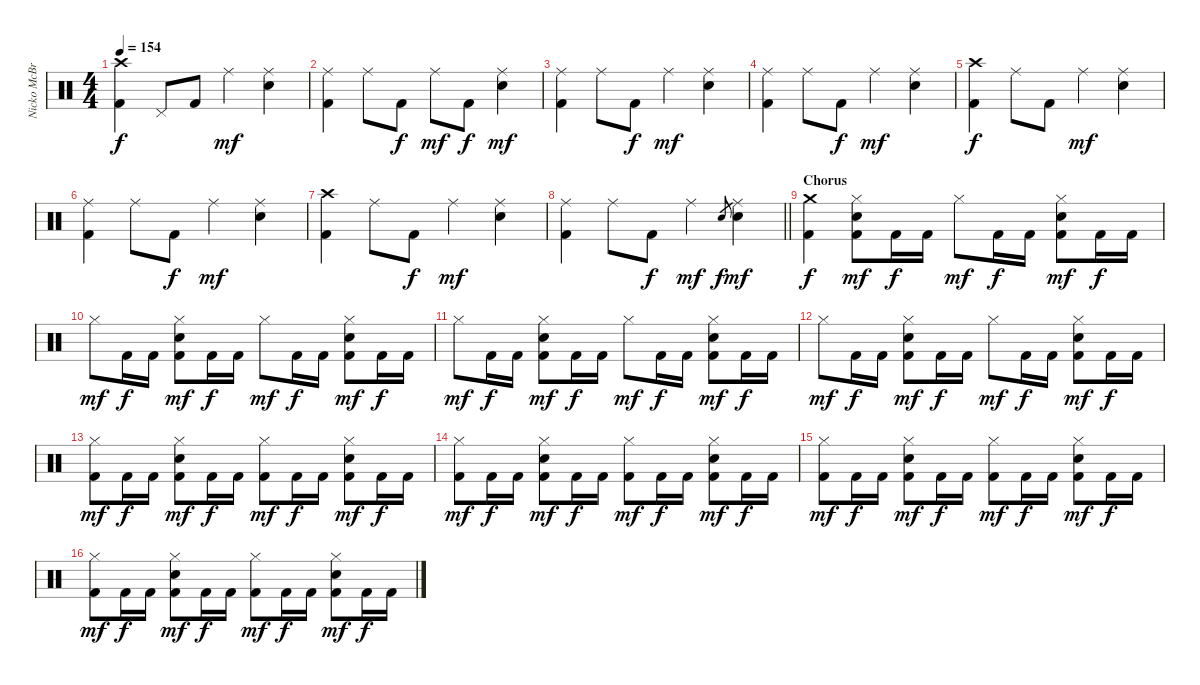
\track ("Nicko McBrain" "Nicko McBr") {instrument percussion}
\staff {score}
\articulation defaults
\ts (4 4)
\tempo 154
\clef neutral
\ks c
("Crash high (hit)" "Kick (hit) 2").4{dy f} "Pedal Hi-Hat (hit)".8 "Kick (hit) 2".8 "Ride (middle)".4{dy mf} ("Ride (middle)" "Electric Snare (hit)").4 |
("Ride (middle)" "Kick (hit) 2").4 "Ride (middle)".8 "Kick (hit) 2".8{dy f} "Ride (middle)".8{dy mf} "Kick (hit) 2".8{dy f} ("Ride (middle)" "Electric Snare (hit)").4{dy mf} |
("Ride (middle)" "Kick (hit) 2").4 "Ride (middle)".8 "Kick (hit) 2".8{dy f} "Ride (middle)".4{dy mf} ("Ride (middle)" "Electric Snare (hit)").4 |
("Ride (middle)" "Kick (hit) 2").4 "Ride (middle)".8 "Kick (hit) 2".8{dy f} "Ride (middle)".4{dy mf} ("Ride (middle)" "Electric Snare (hit)").4 |
("Crash high (hit)" "Kick (hit) 2").4{dy f} "Ride (middle)".8 "Kick (hit) 2".8 "Ride (middle)".4{dy mf} ("Ride (middle)" "Electric Snare (hit)").4 |
("Ride (middle)" "Kick (hit) 2").4 "Ride (middle)".8 "Kick (hit) 2".8{dy f} "Ride (middle)".4{dy mf} ("Ride (middle)" "Electric Snare (hit)").4 |
("Crash high (hit)" "Kick (hit) 2").4 "Ride (middle)".8 "Kick (hit) 2".8{dy f} "Ride (middle)".4{dy mf} ("Ride (middle)" "Electric Snare (hit)").4 |
\barLineRight lightlight
("Ride (middle)" "Kick (hit) 2").4 "Ride (middle)".8 "Kick (hit) 2".8{dy f} "Ride (middle)".4{dy mf} "Snare (hit) 2".8{gr dy f} ("Ride (middle)" "Electric Snare (hit)").4{dy mf} |
\section ("" "Chorus")
("Crash medium (hit)" "Kick (hit) 2").4{dy f} ("Hi-Hat (closed)" "Kick (hit) 2" "Electric Snare (hit)").8{dy mf} "Kick (hit) 2".16{dy f} "Kick (hit) 2".16 "Hi-Hat (closed)".8{dy mf} "Kick (hit) 2".16{dy f} "Kick (hit) 2".16 ("Hi-Hat (closed)" "Kick (hit) 2" "Electric Snare (hit)").8{dy mf} "Kick (hit) 2".16{dy f} "Kick (hit) 2".16 |
"Hi-Hat (closed)".8{dy mf} "Kick (hit) 2".16{dy f} "Kick (hit) 2".16 ("Hi-Hat (closed)" "Kick (hit) 2" "Electric Snare (hit)").8{dy mf} "Kick (hit) 2".16{dy f} "Kick (hit) 2".16 "Hi-Hat (closed)".8{dy mf} "Kick (hit) 2".16{dy f} "Kick (hit) 2".16 ("Hi-Hat (closed)" "Kick (hit) 2" "Electric Snare (hit)").8{dy mf} "Kick (hit) 2".16{dy f} "Kick (hit) 2".16 |
"Hi-Hat (closed)".8{dy mf} "Kick (hit) 2".16{dy f} "Kick (hit) 2".16 ("Hi-Hat (closed)" "Kick (hit) 2" "Electric Snare (hit)").8{dy mf} "Kick (hit) 2".16{dy f} "Kick (hit) 2".16 "Hi-Hat (closed)".8{dy mf} "Kick (hit) 2".16{dy f} "Kick (hit) 2".16 ("Hi-Hat (closed)" "Kick (hit) 2" "Electric Snare (hit)").8{dy mf} "Kick (hit) 2".16{dy f} "Kick (hit) 2".16 |
"Hi-Hat (closed)".8{dy mf} "Kick (hit) 2".16{dy f} "Kick (hit) 2".16 ("Hi-Hat (closed)" "Kick (hit) 2" "Electric Snare (hit)").8{dy mf} "Kick (hit) 2".16{dy f} "Kick (hit) 2".16 "Hi-Hat (closed)".8{dy mf} "Kick (hit) 2".16{dy f} "Kick (hit) 2".16 ("Hi-Hat (closed)" "Kick (hit) 2" "Electric Snare (hit)").8{dy mf} "Kick (hit) 2".16{dy f} "Kick (hit) 2".16 |
("Hi-Hat (closed)" "Kick (hit) 2").8{dy mf} "Kick (hit) 2".16{dy f} "Kick (hit) 2".16 ("Hi-Hat (closed)" "Kick (hit) 2" "Electric Snare (hit)").8{dy mf} "Kick (hit) 2".16{dy f} "Kick (hit) 2".16 ("Hi-Hat (closed)" "Kick (hit) 2").8{dy mf} "Kick (hit) 2".16{dy f} "Kick (hit) 2".16 ("Hi-Hat (closed)" "Kick (hit) 2" "Electric Snare (hit)").8{dy mf} "Kick (hit) 2".16{dy f} "Kick (hit) 2".16 |
("Hi-Hat (closed)" "Kick (hit) 2").8{dy mf} "Kick (hit) 2".16{dy f} "Kick (hit) 2".16 ("Hi-Hat (closed)" "Kick (hit) 2" "Electric Snare (hit)").8{dy mf} "Kick (hit) 2".16{dy f} "Kick (hit) 2".16 ("Hi-Hat (closed)" "Kick (hit) 2").8{dy mf} "Kick (hit) 2".16{dy f} "Kick (hit) 2".16 ("Hi-Hat (closed)" "Kick (hit) 2" "Electric Snare (hit)").8{dy mf} "Kick (hit) 2".16{dy f} "Kick (hit) 2".16 |
("Hi-Hat (closed)" "Kick (hit) 2").8{dy mf} "Kick (hit) 2".16{dy f} "Kick (hit) 2".16 ("Hi-Hat (closed)" "Kick (hit) 2" "Electric Snare (hit)").8{dy mf} "Kick (hit) 2".16{dy f} "Kick (hit) 2".16 ("Hi-Hat (closed)" "Kick (hit) 2").8{dy mf} "Kick (hit) 2".16{dy f} "Kick (hit) 2".16 ("Hi-Hat (closed)" "Kick (hit) 2" "Electric Snare (hit)").8{dy mf} "Kick (hit) 2".16{dy f} "Kick (hit) 2".16 |
("Hi-Hat (closed)" "Kick (hit) 2").8{dy mf} "Kick (hit) 2".16{dy f} "Kick (hit) 2".16 ("Hi-Hat (closed)" "Kick (hit) 2" "Electric Snare (hit)").8{dy mf} "Kick (hit) 2".16{dy f} "Kick (hit) 2".16 ("Hi-Hat (closed)" "Kick (hit) 2").8{dy mf} "Kick (hit) 2".16{dy f} "Kick (hit) 2".16 ("Hi-Hat (closed)" "Kick (hit) 2" "Electric Snare (hit)").8{dy mf} "Kick (hit) 2".16{dy f} "Kick (hit) 2".16
